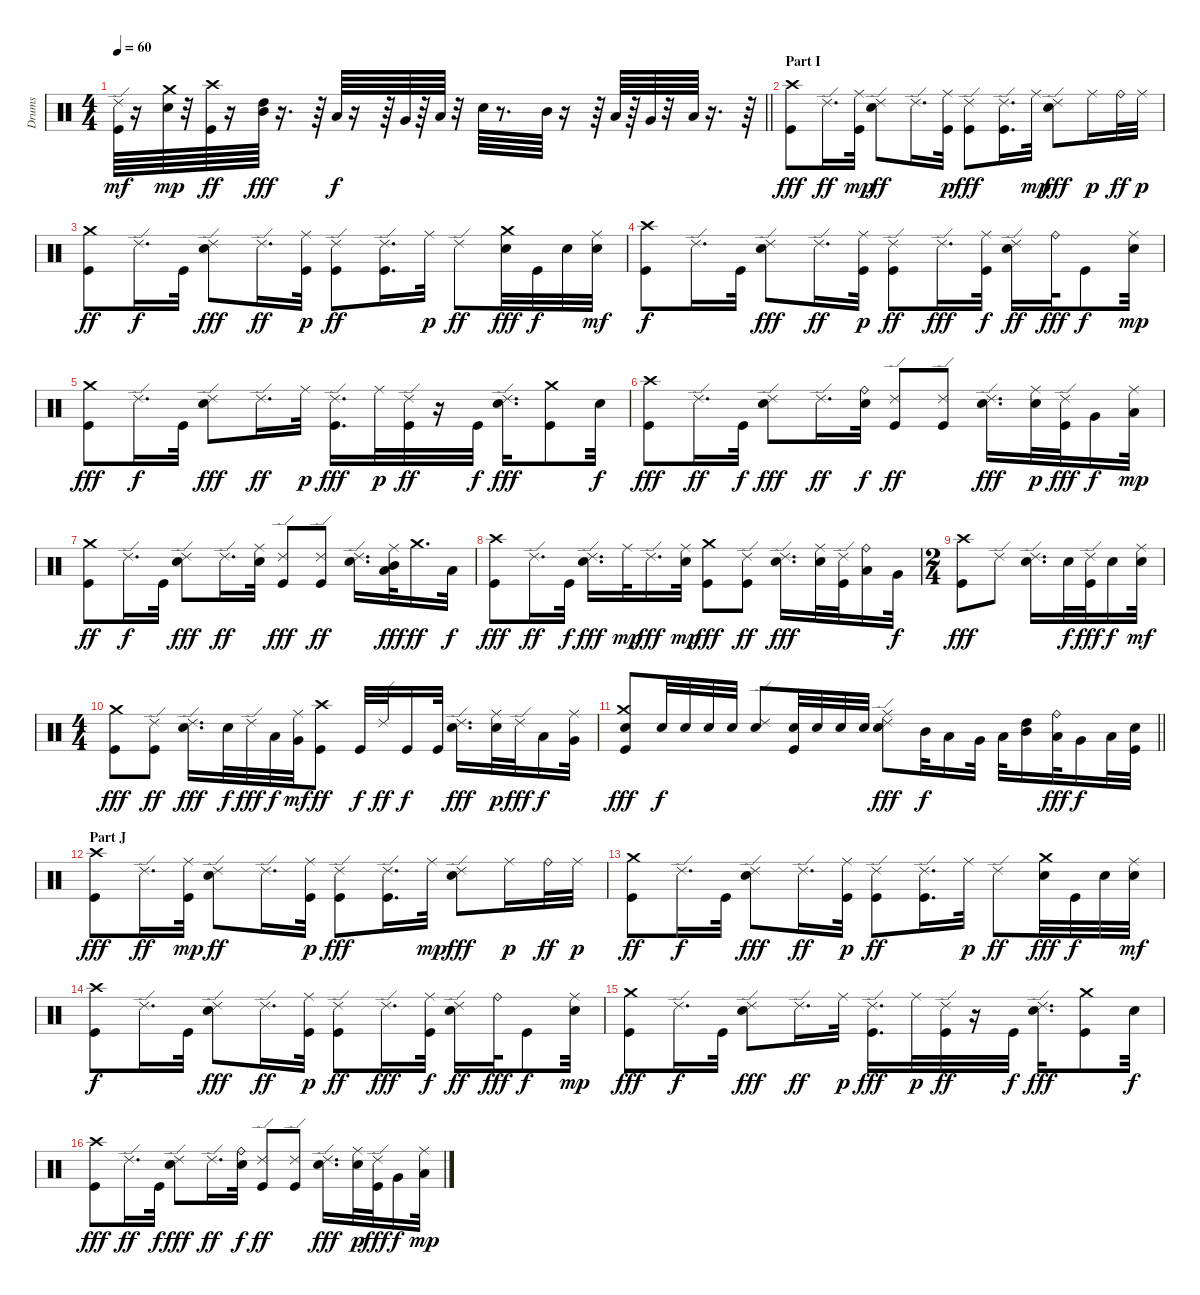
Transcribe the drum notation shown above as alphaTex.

\track ("Drums" "Drums") {instrument percussion}
\staff {score}
\articulation defaults
\ts (4 4)
\tempo 60
\clef neutral
\barLineRight lightlight
\ks c
("Ride (edge) 2" "Kick (hit)").64{dy mf} r.16 ("Crash medium (hit)" "Electric Snare (hit)").64{dy mp} r.32 ("Crash high (hit)" "Kick (hit)").64{dy ff} r.16 ("High Tom (hit)" "Mid Tom (hit)").64{dy fff} r.16{d} r.64 "Low Tom (hit)".64{dy f} r.16 r.64 "Very Low Tom (hit)".64 r.64 "Low Floor Tom (hit)".64 r.32 "Electric Snare (hit)".64 r.8{d} "Mid Tom (hit)".64 r.16 r.64 "Low Tom (hit)".64 r.64 "Very Low Tom (hit)".64 r.32 "Low Floor Tom (hit)".64 r.16{d} r.64 |
\section ("" "Part I")
("Crash high (hit)" "Kick (hit)").8{dy fff volume 13} "Ride (edge) 2".16{d dy ff} ("Ride (middle)" "Kick (hit)").32{dy mp} ("Ride (edge) 2" "Electric Snare (hit)").8{dy ff} "Ride (edge) 2".16{d} ("Ride (middle)" "Kick (hit)").32{dy p} ("Ride (edge) 2" "Kick (hit)").8{dy fff} ("Ride (edge) 2" "Kick (hit)").16{d} "Ride (middle)".32{dy mp} ("Ride (edge) 2" "Electric Snare (hit)").8{dy fff} "Ride (middle)".16{dy p} "Ride (bell)".32{dy ff} "Ride (middle)".32{dy p} |
("Crash medium (hit)" "Kick (hit)").8{dy ff} "Ride (edge) 2".16{d dy f} "Kick (hit)".32 ("Ride (edge) 2" "Electric Snare (hit)").8{dy fff} "Ride (edge) 2".16{d dy ff} ("Ride (middle)" "Kick (hit)").32{dy p} ("Ride (edge) 2" "Kick (hit)").8{dy ff} ("Ride (edge) 2" "Kick (hit)").16{d} "Ride (middle)".32{dy p} "Ride (edge) 2".8{dy ff} ("Crash medium (hit)" "Electric Snare (hit)").32{dy fff} "Kick (hit)".32{dy f} "Electric Snare (hit)".32 ("Ride (middle)" "Electric Snare (hit)").32{dy mf} |
("Crash high (hit)" "Kick (hit)").8{dy f} "Ride (edge) 2".16{d} "Kick (hit)".32 ("Ride (edge) 2" "Electric Snare (hit)").8{dy fff} "Ride (edge) 2".16{d dy ff} ("Ride (middle)" "Kick (hit)").32{dy p} ("Ride (edge) 2" "Kick (hit)").8{dy ff} "Ride (edge) 2".16{d dy fff} ("Ride (middle)" "Kick (hit)").32{dy f} ("Ride (edge) 2" "Electric Snare (hit)").16{dy ff} "Ride (bell)".32{dy fff} "Kick (hit)".8{dy f} ("Ride (middle)" "Electric Snare (hit)").32{dy mp} |
("Crash medium (hit)" "Kick (hit)").8{dy fff} "Ride (edge) 2".16{d dy f} "Kick (hit)".32 ("Ride (edge) 2" "Electric Snare (hit)").8{dy fff} "Ride (edge) 2".16{d dy ff} "Ride (middle)".32{dy p} ("Ride (edge) 2" "Kick (hit)").16{d dy fff} "Ride (middle)".32{dy p} ("Ride (edge) 2" "Kick (hit)").32{dy ff} r.16 "Kick (hit)".32{dy f} ("Ride (edge) 2" "Electric Snare (hit)").16{d dy fff} ("Crash medium (hit)" "Kick (hit)").8 "Electric Snare (hit)".32{dy f} |
("Crash high (hit)" "Kick (hit)").8{dy fff} "Ride (edge) 2".16{d dy ff} "Kick (hit)".32{dy f} ("Ride (edge) 2" "Electric Snare (hit)").8{dy fff} "Ride (edge) 2".16{d dy ff} ("Ride (bell)" "Electric Snare (hit)").32{dy f} ("Ride (edge) 2" "Kick (hit)").8{dy ff} ("Ride (edge) 2" "Kick (hit)").8 ("Ride (edge) 2" "Electric Snare (hit)").16{d dy fff} ("Ride (middle)" "Electric Snare (hit)").32{dy p} ("Ride (edge) 2" "Kick (hit)").32{dy fff} "Very Low Tom (hit)".16{dy f} ("Ride (middle)" "Low Floor Tom (hit)").32{dy mp} |
("Crash medium (hit)" "Kick (hit)").8{dy ff} "Ride (edge) 2".16{d dy f} "Kick (hit)".32 ("Ride (edge) 2" "Electric Snare (hit)").8{dy fff} "Ride (edge) 2".16{d dy ff} ("Ride (middle)" "Electric Snare (hit)").32 ("Ride (edge) 2" "Kick (hit)").8{dy fff} ("Ride (edge) 2" "Kick (hit)").8{dy ff} ("Ride (edge) 2" "Electric Snare (hit)").16{d} ("Ride (middle)" "Mid Tom (hit)" "Low Tom (hit)").32{dy fff} "Crash medium (hit)".16{d dy ff} "Low Floor Tom (hit)".32{dy f} |
("Crash high (hit)" "Kick (hit)").8{dy fff} "Ride (edge) 2".16{d dy ff} "Kick (hit)".32{dy f} ("Ride (edge) 2" "Electric Snare (hit)").16{d dy fff} "Ride (middle)".32{dy mp} "Ride (edge) 2".16{d dy fff} ("Ride (middle)" "Electric Snare (hit)").32{dy mp} ("Crash medium (hit)" "Kick (hit)").8{dy fff} ("Ride (edge) 2" "Kick (hit)").8{dy ff} ("Ride (edge) 2" "Electric Snare (hit)").16{d dy fff} ("Ride (middle)" "Electric Snare (hit)").32 ("Ride (edge) 2" "Kick (hit)").32 ("Ride (bell)" "Low Tom (hit)").16 "Very Low Tom (hit)".32{dy f} |
\ts (2 4)
("Crash high (hit)" "Kick (hit)").8{dy fff} "Ride (edge) 2".8 ("Ride (edge) 2" "Electric Snare (hit)").16{d} "Electric Snare (hit)".32{dy f} ("Ride (edge) 2" "Kick (hit)").32{dy fff} "Electric Snare (hit)".16{dy f} ("Ride (middle)" "Electric Snare (hit)").32{dy mf} |
\ts (4 4)
("Crash medium (hit)" "Kick (hit)").8{dy fff} ("Ride (edge) 2" "Kick (hit)").8{dy ff} ("Ride (edge) 2" "Electric Snare (hit)").16{d dy fff} "Electric Snare (hit)".32{dy f} "Ride (edge) 2".32{dy fff} "Low Tom (hit)".32{dy f} ("Ride (middle)" "Very Low Tom (hit)").32{dy mf} ("Crash high (hit)" "Kick (hit)").8{dy ff} "Kick (hit)".32{dy f} "Ride (edge) 2".32{dy ff} "Kick (hit)".16{dy f} "Kick (hit)".32 ("Ride (edge) 2" "Electric Snare (hit)").16{d dy fff} ("Ride (middle)" "Electric Snare (hit)").32{dy p} "Ride (edge) 2".32{dy fff} "Low Tom (hit)".16{dy f} ("Ride (middle)" "Very Low Tom (hit)").32 |
\barLineRight lightlight
("Crash medium (hit)" "Electric Snare (hit)" "Kick (hit)").8{dy fff} "Electric Snare (hit)".32{dy f} "Electric Snare (hit)".32 "Electric Snare (hit)".32 "Electric Snare (hit)".32 ("Ride (edge) 2" "Electric Snare (hit)").8 ("Electric Snare (hit)" "Kick (hit)").32 "Electric Snare (hit)".32 "Electric Snare (hit)".32 "Electric Snare (hit)".32 ("Ride (edge) 2" "Ride (middle)" "Electric Snare (hit)").8{dy fff} "Mid Tom (hit)".32{dy f} "Low Tom (hit)".16 "Very Low Tom (hit)".32 "Low Floor Tom (hit)".32 ("High Tom (hit)" "Mid Tom (hit)").16 ("Ride (bell)" "Low Tom (hit)").32{dy fff} "Very Low Tom (hit)".16{dy f} "Low Floor Tom (hit)".32 ("Electric Snare (hit)" "Kick (hit)").32 |
\section ("" "Part J")
("Crash high (hit)" "Kick (hit)").8{dy fff volume 13} "Ride (edge) 2".16{d dy ff} ("Ride (middle)" "Kick (hit)").32{dy mp} ("Ride (edge) 2" "Electric Snare (hit)").8{dy ff} "Ride (edge) 2".16{d} ("Ride (middle)" "Kick (hit)").32{dy p} ("Ride (edge) 2" "Kick (hit)").8{dy fff} ("Ride (edge) 2" "Kick (hit)").16{d} "Ride (middle)".32{dy mp} ("Ride (edge) 2" "Electric Snare (hit)").8{dy fff} "Ride (middle)".16{dy p} "Ride (bell)".32{dy ff} "Ride (middle)".32{dy p} |
("Crash medium (hit)" "Kick (hit)").8{dy ff} "Ride (edge) 2".16{d dy f} "Kick (hit)".32 ("Ride (edge) 2" "Electric Snare (hit)").8{dy fff} "Ride (edge) 2".16{d dy ff} ("Ride (middle)" "Kick (hit)").32{dy p} ("Ride (edge) 2" "Kick (hit)").8{dy ff} ("Ride (edge) 2" "Kick (hit)").16{d} "Ride (middle)".32{dy p} "Ride (edge) 2".8{dy ff} ("Crash medium (hit)" "Electric Snare (hit)").32{dy fff} "Kick (hit)".32{dy f} "Electric Snare (hit)".32 ("Ride (middle)" "Electric Snare (hit)").32{dy mf} |
("Crash high (hit)" "Kick (hit)").8{dy f} "Ride (edge) 2".16{d} "Kick (hit)".32 ("Ride (edge) 2" "Electric Snare (hit)").8{dy fff} "Ride (edge) 2".16{d dy ff} ("Ride (middle)" "Kick (hit)").32{dy p} ("Ride (edge) 2" "Kick (hit)").8{dy ff} "Ride (edge) 2".16{d dy fff} ("Ride (middle)" "Kick (hit)").32{dy f} ("Ride (edge) 2" "Electric Snare (hit)").16{dy ff} "Ride (bell)".32{dy fff} "Kick (hit)".8{dy f} ("Ride (middle)" "Electric Snare (hit)").32{dy mp} |
("Crash medium (hit)" "Kick (hit)").8{dy fff} "Ride (edge) 2".16{d dy f} "Kick (hit)".32 ("Ride (edge) 2" "Electric Snare (hit)").8{dy fff} "Ride (edge) 2".16{d dy ff} "Ride (middle)".32{dy p} ("Ride (edge) 2" "Kick (hit)").16{d dy fff} "Ride (middle)".32{dy p} ("Ride (edge) 2" "Kick (hit)").32{dy ff} r.16 "Kick (hit)".32{dy f} ("Ride (edge) 2" "Electric Snare (hit)").16{d dy fff} ("Crash medium (hit)" "Kick (hit)").8 "Electric Snare (hit)".32{dy f} |
("Crash high (hit)" "Kick (hit)").8{dy fff} "Ride (edge) 2".16{d dy ff} "Kick (hit)".32{dy f} ("Ride (edge) 2" "Electric Snare (hit)").8{dy fff} "Ride (edge) 2".16{d dy ff} ("Ride (bell)" "Electric Snare (hit)").32{dy f} ("Ride (edge) 2" "Kick (hit)").8{dy ff} ("Ride (edge) 2" "Kick (hit)").8 ("Ride (edge) 2" "Electric Snare (hit)").16{d dy fff} ("Ride (middle)" "Electric Snare (hit)").32{dy p} ("Ride (edge) 2" "Kick (hit)").32{dy fff} "Very Low Tom (hit)".16{dy f} ("Ride (middle)" "Low Floor Tom (hit)").32{dy mp}
